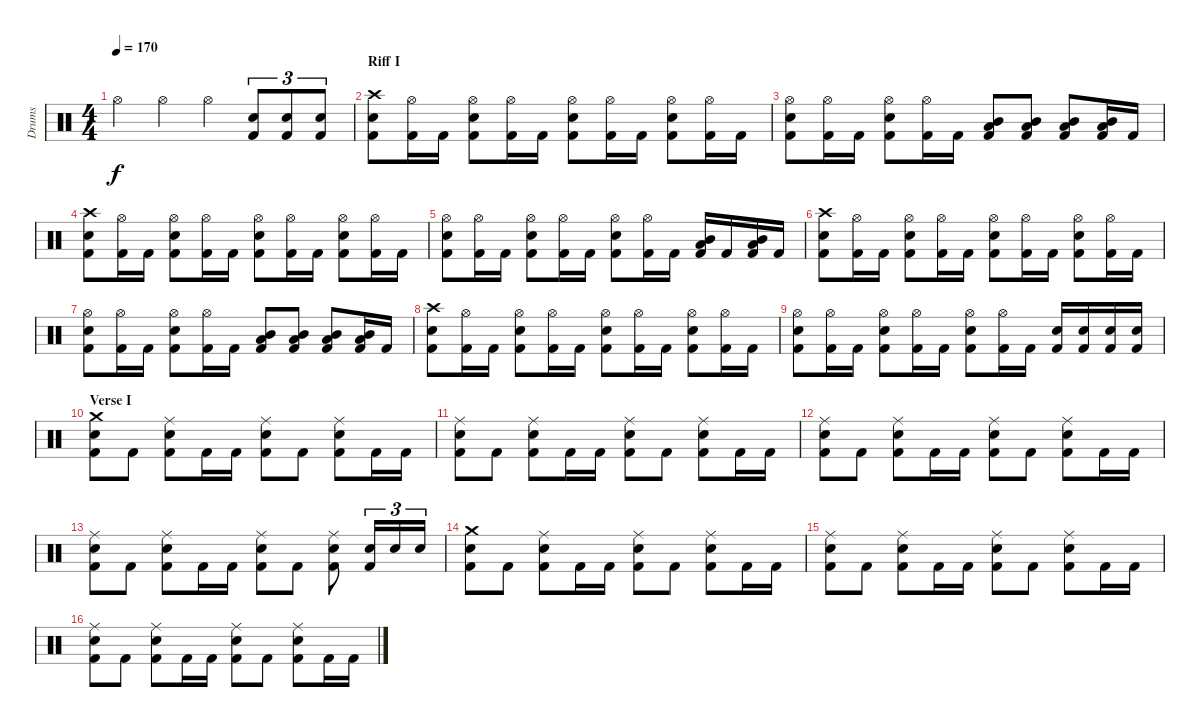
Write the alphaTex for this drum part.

\track ("Drums" "Drums") {instrument percussion}
\staff {score}
\articulation defaults
\ts (4 4)
\tempo 170
\clef neutral
\ks c "Hi-Hat (open)".4{dy f} "Hi-Hat (open)".4 "Hi-Hat (open)".4
("Kick (hit) 2" "Snare (hit) 2").8{tu (3 2)} ("Kick (hit) 2" "Snare (hit) 2").8{tu (3 2)} ("Kick (hit) 2" "Snare (hit) 2").8{tu (3 2)} |
\section ("" "Riff I")
("Kick (hit) 2" "Snare (hit) 2" "Crash high (hit)").8 ("Kick (hit) 2" "Hi-Hat (open)").16 "Kick (hit) 2".16 ("Kick (hit) 2" "Snare (hit) 2" "Hi-Hat (open)").8 ("Kick (hit) 2" "Hi-Hat (open)").16 "Kick (hit) 2".16 ("Kick (hit) 2" "Snare (hit) 2" "Hi-Hat (open)").8 ("Kick (hit) 2" "Hi-Hat (open)").16 "Kick (hit) 2".16 ("Kick (hit) 2" "Snare (hit) 2" "Hi-Hat (open)").8 ("Kick (hit) 2" "Hi-Hat (open)").16 "Kick (hit) 2".16 |
("Kick (hit) 2" "Snare (hit) 2" "Hi-Hat (open)").8 ("Kick (hit) 2" "Hi-Hat (open)").16 "Kick (hit) 2".16 ("Kick (hit) 2" "Snare (hit) 2" "Hi-Hat (open)").8 ("Kick (hit) 2" "Hi-Hat (open)").16 "Kick (hit) 2".16 ("Kick (hit) 2" "Mid Tom (hit)" "Low Tom (hit)").8 ("Kick (hit) 2" "Mid Tom (hit)" "Low Tom (hit)").8 ("Kick (hit) 2" "Mid Tom (hit)" "Low Tom (hit)").8 ("Kick (hit) 2" "Mid Tom (hit)" "Low Tom (hit)").16 "Kick (hit) 2".16 |
("Kick (hit) 2" "Snare (hit) 2" "Crash high (hit)").8 ("Kick (hit) 2" "Hi-Hat (open)").16 "Kick (hit) 2".16 ("Kick (hit) 2" "Snare (hit) 2" "Hi-Hat (open)").8 ("Kick (hit) 2" "Hi-Hat (open)").16 "Kick (hit) 2".16 ("Kick (hit) 2" "Snare (hit) 2" "Hi-Hat (open)").8 ("Kick (hit) 2" "Hi-Hat (open)").16 "Kick (hit) 2".16 ("Kick (hit) 2" "Snare (hit) 2" "Hi-Hat (open)").8 ("Kick (hit) 2" "Hi-Hat (open)").16 "Kick (hit) 2".16 |
("Kick (hit) 2" "Snare (hit) 2" "Hi-Hat (open)").8 ("Kick (hit) 2" "Hi-Hat (open)").16 "Kick (hit) 2".16 ("Kick (hit) 2" "Snare (hit) 2" "Hi-Hat (open)").8 ("Kick (hit) 2" "Hi-Hat (open)").16 "Kick (hit) 2".16 ("Kick (hit) 2" "Snare (hit) 2" "Hi-Hat (open)").8 ("Kick (hit) 2" "Hi-Hat (open)").16 "Kick (hit) 2".16 ("Kick (hit) 2" "Mid Tom (hit)" "Low Tom (hit)").16 "Kick (hit) 2".16 ("Kick (hit) 2" "Mid Tom (hit)" "Low Tom (hit)").16 "Kick (hit) 2".16 |
("Kick (hit) 2" "Snare (hit) 2" "Crash high (hit)").8 ("Kick (hit) 2" "Hi-Hat (open)").16 "Kick (hit) 2".16 ("Kick (hit) 2" "Snare (hit) 2" "Hi-Hat (open)").8 ("Kick (hit) 2" "Hi-Hat (open)").16 "Kick (hit) 2".16 ("Kick (hit) 2" "Snare (hit) 2" "Hi-Hat (open)").8 ("Kick (hit) 2" "Hi-Hat (open)").16 "Kick (hit) 2".16 ("Kick (hit) 2" "Snare (hit) 2" "Hi-Hat (open)").8 ("Kick (hit) 2" "Hi-Hat (open)").16 "Kick (hit) 2".16 |
("Kick (hit) 2" "Snare (hit) 2" "Hi-Hat (open)").8 ("Kick (hit) 2" "Hi-Hat (open)").16 "Kick (hit) 2".16 ("Kick (hit) 2" "Snare (hit) 2" "Hi-Hat (open)").8 ("Kick (hit) 2" "Hi-Hat (open)").16 "Kick (hit) 2".16 ("Kick (hit) 2" "Mid Tom (hit)" "Low Tom (hit)").8 ("Kick (hit) 2" "Mid Tom (hit)" "Low Tom (hit)").8 ("Kick (hit) 2" "Mid Tom (hit)" "Low Tom (hit)").8 ("Kick (hit) 2" "Mid Tom (hit)" "Low Tom (hit)").16 "Kick (hit) 2".16 |
("Kick (hit) 2" "Snare (hit) 2" "Crash high (hit)").8 ("Kick (hit) 2" "Hi-Hat (open)").16 "Kick (hit) 2".16 ("Kick (hit) 2" "Snare (hit) 2" "Hi-Hat (open)").8 ("Kick (hit) 2" "Hi-Hat (open)").16 "Kick (hit) 2".16 ("Kick (hit) 2" "Snare (hit) 2" "Hi-Hat (open)").8 ("Kick (hit) 2" "Hi-Hat (open)").16 "Kick (hit) 2".16 ("Kick (hit) 2" "Snare (hit) 2" "Hi-Hat (open)").8 ("Kick (hit) 2" "Hi-Hat (open)").16 "Kick (hit) 2".16 |
("Kick (hit) 2" "Snare (hit) 2" "Hi-Hat (open)").8 ("Kick (hit) 2" "Hi-Hat (open)").16 "Kick (hit) 2".16 ("Kick (hit) 2" "Snare (hit) 2" "Hi-Hat (open)").8 ("Kick (hit) 2" "Hi-Hat (open)").16 "Kick (hit) 2".16 ("Kick (hit) 2" "Snare (hit) 2" "Hi-Hat (open)").8 ("Kick (hit) 2" "Hi-Hat (open)").16 "Kick (hit) 2".16 ("Kick (hit) 2" "Snare (hit) 2").16 ("Kick (hit) 2" "Snare (hit) 2").16 ("Kick (hit) 2" "Snare (hit) 2").16 ("Kick (hit) 2" "Snare (hit) 2").16 |
\section ("" "Verse I")
("Kick (hit) 2" "Snare (hit) 2" "Crash medium (hit)").8 "Kick (hit) 2".8 ("Kick (hit) 2" "Snare (hit) 2" "Ride (middle)").8 "Kick (hit) 2".16 "Kick (hit) 2".16 ("Kick (hit) 2" "Snare (hit) 2" "Ride (middle)").8 "Kick (hit) 2".8 ("Kick (hit) 2" "Snare (hit) 2" "Ride (middle)").8 "Kick (hit) 2".16 "Kick (hit) 2".16 |
("Kick (hit) 2" "Snare (hit) 2" "Ride (middle)").8 "Kick (hit) 2".8 ("Kick (hit) 2" "Snare (hit) 2" "Ride (middle)").8 "Kick (hit) 2".16 "Kick (hit) 2".16 ("Kick (hit) 2" "Snare (hit) 2" "Ride (middle)").8 "Kick (hit) 2".8 ("Kick (hit) 2" "Snare (hit) 2" "Ride (middle)").8 "Kick (hit) 2".16 "Kick (hit) 2".16 |
("Kick (hit) 2" "Snare (hit) 2" "Ride (middle)").8 "Kick (hit) 2".8 ("Kick (hit) 2" "Snare (hit) 2" "Ride (middle)").8 "Kick (hit) 2".16 "Kick (hit) 2".16 ("Kick (hit) 2" "Snare (hit) 2" "Ride (middle)").8 "Kick (hit) 2".8 ("Kick (hit) 2" "Snare (hit) 2" "Ride (middle)").8 "Kick (hit) 2".16 "Kick (hit) 2".16 |
("Kick (hit) 2" "Snare (hit) 2" "Ride (middle)").8 "Kick (hit) 2".8 ("Kick (hit) 2" "Snare (hit) 2" "Ride (middle)").8 "Kick (hit) 2".16 "Kick (hit) 2".16 ("Kick (hit) 2" "Snare (hit) 2" "Ride (middle)").8 "Kick (hit) 2".8 ("Kick (hit) 2" "Snare (hit) 2" "Ride (middle)").8 ("Kick (hit) 2" "Snare (hit) 2").16{tu (3 2)} "Snare (hit) 2".16{tu (3 2)} "Snare (hit) 2".16{tu (3 2)} |
("Kick (hit) 2" "Snare (hit) 2" "Crash medium (hit)").8 "Kick (hit) 2".8 ("Kick (hit) 2" "Snare (hit) 2" "Ride (middle)").8 "Kick (hit) 2".16 "Kick (hit) 2".16 ("Kick (hit) 2" "Snare (hit) 2" "Ride (middle)").8 "Kick (hit) 2".8 ("Kick (hit) 2" "Snare (hit) 2" "Ride (middle)").8 "Kick (hit) 2".16 "Kick (hit) 2".16 |
("Kick (hit) 2" "Snare (hit) 2" "Ride (middle)").8 "Kick (hit) 2".8 ("Kick (hit) 2" "Snare (hit) 2" "Ride (middle)").8 "Kick (hit) 2".16 "Kick (hit) 2".16 ("Kick (hit) 2" "Snare (hit) 2" "Ride (middle)").8 "Kick (hit) 2".8 ("Kick (hit) 2" "Snare (hit) 2" "Ride (middle)").8 "Kick (hit) 2".16 "Kick (hit) 2".16 |
("Kick (hit) 2" "Snare (hit) 2" "Ride (middle)").8 "Kick (hit) 2".8 ("Kick (hit) 2" "Snare (hit) 2" "Ride (middle)").8 "Kick (hit) 2".16 "Kick (hit) 2".16 ("Kick (hit) 2" "Snare (hit) 2" "Ride (middle)").8 "Kick (hit) 2".8 ("Kick (hit) 2" "Snare (hit) 2" "Ride (middle)").8 "Kick (hit) 2".16 "Kick (hit) 2".16
